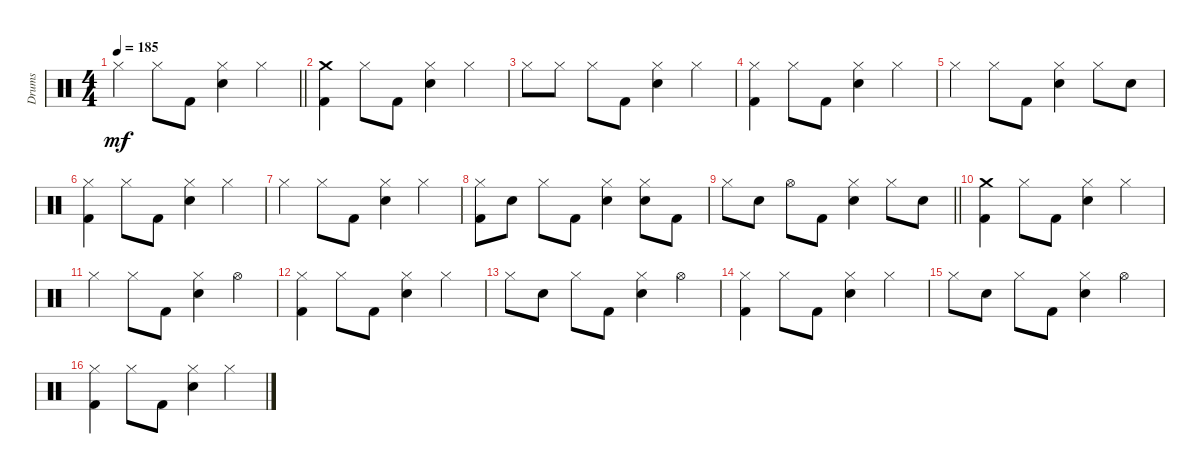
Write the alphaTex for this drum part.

\track ("Drums" "Drums") {instrument percussion}
\staff {score}
\articulation defaults
\ts (4 4)
\tempo 185
\clef neutral
\barLineRight lightlight
\ks c "Hi-Hat (closed)".4{dy mf} "Hi-Hat (closed)".8 "Kick (hit) 2".8
("Hi-Hat (closed)" "Snare (hit) 2").4 "Hi-Hat (closed)".4 |
("Crash medium (hit)" "Kick (hit) 2").4 "Hi-Hat (closed)".8 "Kick (hit) 2".8 ("Hi-Hat (closed)" "Snare (hit) 2").4 "Hi-Hat (closed)".4 |
"Hi-Hat (closed)".8 "Hi-Hat (closed)".8 "Hi-Hat (closed)".8 "Kick (hit) 2".8 ("Hi-Hat (closed)" "Snare (hit) 2").4 "Hi-Hat (closed)".4 |
("Hi-Hat (closed)" "Kick (hit) 2").4 "Hi-Hat (closed)".8 "Kick (hit) 2".8 ("Hi-Hat (closed)" "Snare (hit) 2").4 "Hi-Hat (closed)".4 |
"Hi-Hat (closed)".4 "Hi-Hat (closed)".8 "Kick (hit) 2".8 ("Hi-Hat (closed)" "Snare (hit) 2").4 "Hi-Hat (closed)".8 "Snare (hit) 2".8 |
("Hi-Hat (closed)" "Kick (hit) 2").4 "Hi-Hat (closed)".8 "Kick (hit) 2".8 ("Hi-Hat (closed)" "Snare (hit) 2").4 "Hi-Hat (closed)".4 |
"Hi-Hat (closed)".4 "Hi-Hat (closed)".8 "Kick (hit) 2".8 ("Hi-Hat (closed)" "Snare (hit) 2").4 "Hi-Hat (closed)".4 |
("Hi-Hat (closed)" "Kick (hit) 2").8 "Snare (hit) 2".8 "Hi-Hat (closed)".8 "Kick (hit) 2".8 ("Hi-Hat (closed)" "Snare (hit) 2").4 ("Hi-Hat (closed)" "Snare (hit) 2").8 "Kick (hit) 2".8 |
\barLineRight lightlight "Hi-Hat (closed)".8 "Snare (hit) 2".8 "Hi-Hat (open)".8 "Kick (hit) 2".8
("Hi-Hat (closed)" "Snare (hit) 2").4 "Hi-Hat (closed)".8 "Snare (hit) 2".8 |
("Crash medium (hit)" "Kick (hit) 2").4 "Hi-Hat (closed)".8 "Kick (hit) 2".8 ("Hi-Hat (closed)" "Snare (hit) 2").4 "Hi-Hat (closed)".4 |
"Hi-Hat (closed)".4 "Hi-Hat (closed)".8 "Kick (hit) 2".8 ("Hi-Hat (closed)" "Snare (hit) 2").4 "Hi-Hat (open)".4 |
("Hi-Hat (closed)" "Kick (hit) 2").4 "Hi-Hat (closed)".8 "Kick (hit) 2".8 ("Hi-Hat (closed)" "Snare (hit) 2").4 "Hi-Hat (closed)".4 |
"Hi-Hat (closed)".8 "Snare (hit) 2".8 "Hi-Hat (closed)".8 "Kick (hit) 2".8 ("Hi-Hat (closed)" "Snare (hit) 2").4 "Hi-Hat (open)".4 |
("Hi-Hat (closed)" "Kick (hit) 2").4 "Hi-Hat (closed)".8 "Kick (hit) 2".8 ("Hi-Hat (closed)" "Snare (hit) 2").4 "Hi-Hat (closed)".4 |
"Hi-Hat (closed)".8 "Snare (hit) 2".8 "Hi-Hat (closed)".8 "Kick (hit) 2".8 ("Hi-Hat (closed)" "Snare (hit) 2").4 "Hi-Hat (open)".4 |
("Hi-Hat (closed)" "Kick (hit) 2").4 "Hi-Hat (closed)".8 "Kick (hit) 2".8 ("Hi-Hat (closed)" "Snare (hit) 2").4 "Hi-Hat (closed)".4
